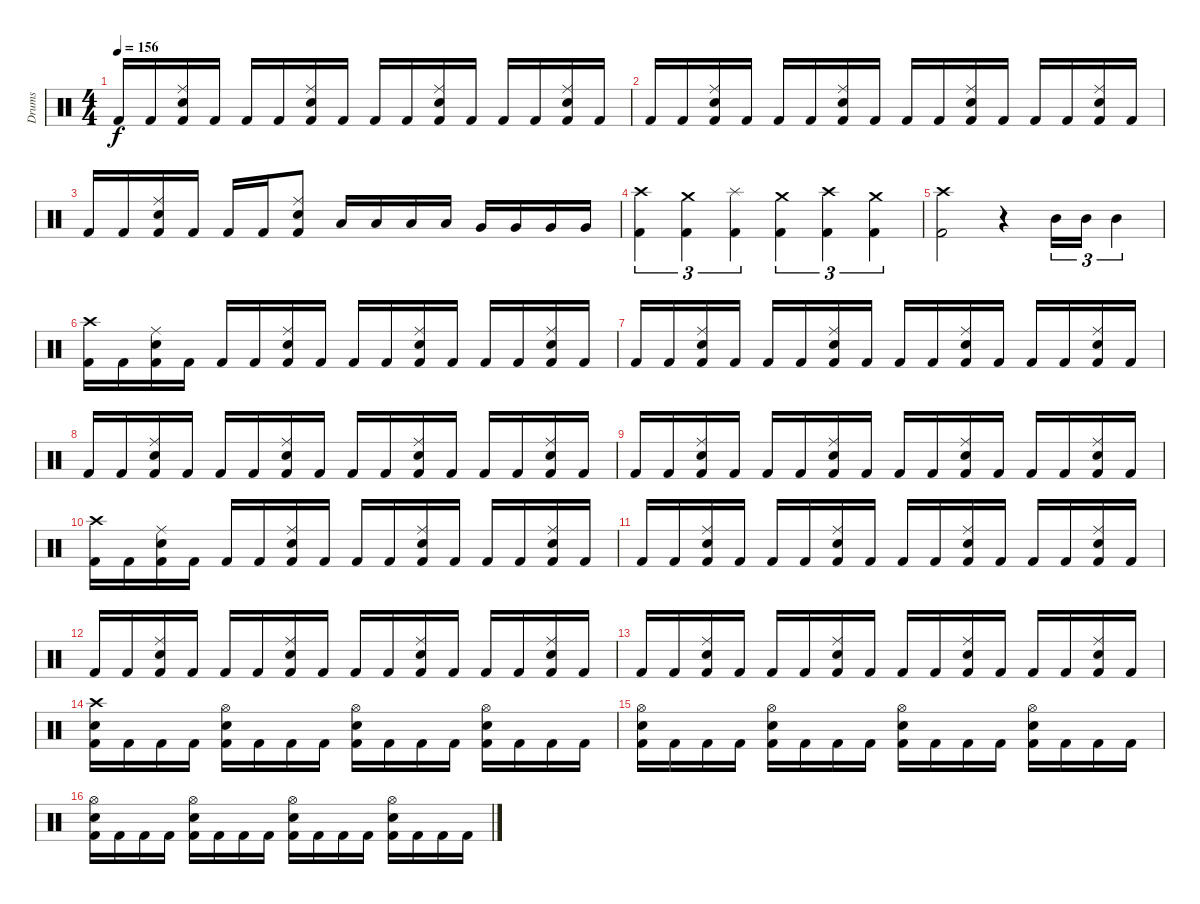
\track ("Drums" "Drums") {instrument percussion}
\staff {score}
\articulation defaults
\ts (4 4)
\tempo 156
\clef neutral
\ks c "Kick (hit) 2".16{dy f} "Kick (hit) 2".16
("Ride (middle)" "Electric Snare (hit)" "Kick (hit) 2").16 "Kick (hit) 2".16 "Kick (hit) 2".16 "Kick (hit) 2".16 ("Ride (middle)" "Electric Snare (hit)" "Kick (hit) 2").16 "Kick (hit) 2".16 "Kick (hit) 2".16 "Kick (hit) 2".16 ("Ride (middle)" "Electric Snare (hit)" "Kick (hit) 2").16 "Kick (hit) 2".16 "Kick (hit) 2".16 "Kick (hit) 2".16 ("Ride (middle)" "Electric Snare (hit)" "Kick (hit) 2").16 "Kick (hit) 2".16 |
"Kick (hit) 2".16 "Kick (hit) 2".16 ("Ride (middle)" "Electric Snare (hit)" "Kick (hit) 2").16 "Kick (hit) 2".16 "Kick (hit) 2".16 "Kick (hit) 2".16 ("Ride (middle)" "Electric Snare (hit)" "Kick (hit) 2").16 "Kick (hit) 2".16 "Kick (hit) 2".16 "Kick (hit) 2".16 ("Ride (middle)" "Electric Snare (hit)" "Kick (hit) 2").16 "Kick (hit) 2".16 "Kick (hit) 2".16 "Kick (hit) 2".16 ("Ride (middle)" "Electric Snare (hit)" "Kick (hit) 2").16 "Kick (hit) 2".16 |
"Kick (hit) 2".16 "Kick (hit) 2".16 ("Ride (middle)" "Electric Snare (hit)" "Kick (hit) 2").16 "Kick (hit) 2".16 "Kick (hit) 2".16 "Kick (hit) 2".16 ("Ride (middle)" "Electric Snare (hit)" "Kick (hit) 2").8 "Low Tom (hit)".16 "Low Tom (hit)".16 "Low Tom (hit)".16 "Low Tom (hit)".16 "Very Low Tom (hit)".16 "Very Low Tom (hit)".16 "Very Low Tom (hit)".16 "Very Low Tom (hit)".16 |
("Crash high (hit)" "Kick (hit) 2").4{tu (3 2)} ("Crash medium (hit)" "Kick (hit) 2").4{tu (3 2)} ("Splash (hit)" "Kick (hit) 2").4{tu (3 2)} ("Crash medium (hit)" "Kick (hit) 2").4{tu (3 2)} ("Crash high (hit)" "Kick (hit) 2").4{tu (3 2)} ("Crash medium (hit)" "Kick (hit) 2").4{tu (3 2)} |
("Crash high (hit)" "Kick (hit) 2").2 r.4 "Mid Tom (hit)".16{tu (3 2)} "Mid Tom (hit)".16{tu (3 2)} "Mid Tom (hit)".4{tu (3 2)} |
("Crash high (hit)" "Kick (hit) 2").16 "Kick (hit) 2".16 ("Ride (middle)" "Electric Snare (hit)" "Kick (hit) 2").16 "Kick (hit) 2".16 "Kick (hit) 2".16 "Kick (hit) 2".16 ("Ride (middle)" "Electric Snare (hit)" "Kick (hit) 2").16 "Kick (hit) 2".16 "Kick (hit) 2".16 "Kick (hit) 2".16 ("Ride (middle)" "Electric Snare (hit)" "Kick (hit) 2").16 "Kick (hit) 2".16 "Kick (hit) 2".16 "Kick (hit) 2".16 ("Ride (middle)" "Electric Snare (hit)" "Kick (hit) 2").16 "Kick (hit) 2".16 |
"Kick (hit) 2".16 "Kick (hit) 2".16 ("Ride (middle)" "Electric Snare (hit)" "Kick (hit) 2").16 "Kick (hit) 2".16 "Kick (hit) 2".16 "Kick (hit) 2".16 ("Ride (middle)" "Electric Snare (hit)" "Kick (hit) 2").16 "Kick (hit) 2".16 "Kick (hit) 2".16 "Kick (hit) 2".16 ("Ride (middle)" "Electric Snare (hit)" "Kick (hit) 2").16 "Kick (hit) 2".16 "Kick (hit) 2".16 "Kick (hit) 2".16 ("Ride (middle)" "Electric Snare (hit)" "Kick (hit) 2").16 "Kick (hit) 2".16 |
"Kick (hit) 2".16 "Kick (hit) 2".16 ("Ride (middle)" "Electric Snare (hit)" "Kick (hit) 2").16 "Kick (hit) 2".16 "Kick (hit) 2".16 "Kick (hit) 2".16 ("Ride (middle)" "Electric Snare (hit)" "Kick (hit) 2").16 "Kick (hit) 2".16 "Kick (hit) 2".16 "Kick (hit) 2".16 ("Ride (middle)" "Electric Snare (hit)" "Kick (hit) 2").16 "Kick (hit) 2".16 "Kick (hit) 2".16 "Kick (hit) 2".16 ("Ride (middle)" "Electric Snare (hit)" "Kick (hit) 2").16 "Kick (hit) 2".16 |
"Kick (hit) 2".16 "Kick (hit) 2".16 ("Ride (middle)" "Electric Snare (hit)" "Kick (hit) 2").16 "Kick (hit) 2".16 "Kick (hit) 2".16 "Kick (hit) 2".16 ("Ride (middle)" "Electric Snare (hit)" "Kick (hit) 2").16 "Kick (hit) 2".16 "Kick (hit) 2".16 "Kick (hit) 2".16 ("Ride (middle)" "Electric Snare (hit)" "Kick (hit) 2").16 "Kick (hit) 2".16 "Kick (hit) 2".16 "Kick (hit) 2".16 ("Ride (middle)" "Electric Snare (hit)" "Kick (hit) 2").16 "Kick (hit) 2".16 |
("Crash high (hit)" "Kick (hit) 2").16 "Kick (hit) 2".16 ("Ride (middle)" "Electric Snare (hit)" "Kick (hit) 2").16 "Kick (hit) 2".16 "Kick (hit) 2".16 "Kick (hit) 2".16 ("Ride (middle)" "Electric Snare (hit)" "Kick (hit) 2").16 "Kick (hit) 2".16 "Kick (hit) 2".16 "Kick (hit) 2".16 ("Ride (middle)" "Electric Snare (hit)" "Kick (hit) 2").16 "Kick (hit) 2".16 "Kick (hit) 2".16 "Kick (hit) 2".16 ("Ride (middle)" "Electric Snare (hit)" "Kick (hit) 2").16 "Kick (hit) 2".16 |
"Kick (hit) 2".16 "Kick (hit) 2".16 ("Ride (middle)" "Electric Snare (hit)" "Kick (hit) 2").16 "Kick (hit) 2".16 "Kick (hit) 2".16 "Kick (hit) 2".16 ("Ride (middle)" "Electric Snare (hit)" "Kick (hit) 2").16 "Kick (hit) 2".16 "Kick (hit) 2".16 "Kick (hit) 2".16 ("Ride (middle)" "Electric Snare (hit)" "Kick (hit) 2").16 "Kick (hit) 2".16 "Kick (hit) 2".16 "Kick (hit) 2".16 ("Ride (middle)" "Electric Snare (hit)" "Kick (hit) 2").16 "Kick (hit) 2".16 |
"Kick (hit) 2".16 "Kick (hit) 2".16 ("Ride (middle)" "Electric Snare (hit)" "Kick (hit) 2").16 "Kick (hit) 2".16 "Kick (hit) 2".16 "Kick (hit) 2".16 ("Ride (middle)" "Electric Snare (hit)" "Kick (hit) 2").16 "Kick (hit) 2".16 "Kick (hit) 2".16 "Kick (hit) 2".16 ("Ride (middle)" "Electric Snare (hit)" "Kick (hit) 2").16 "Kick (hit) 2".16 "Kick (hit) 2".16 "Kick (hit) 2".16 ("Ride (middle)" "Electric Snare (hit)" "Kick (hit) 2").16 "Kick (hit) 2".16 |
"Kick (hit) 2".16 "Kick (hit) 2".16 ("Ride (middle)" "Electric Snare (hit)" "Kick (hit) 2").16 "Kick (hit) 2".16 "Kick (hit) 2".16 "Kick (hit) 2".16 ("Ride (middle)" "Electric Snare (hit)" "Kick (hit) 2").16 "Kick (hit) 2".16 "Kick (hit) 2".16 "Kick (hit) 2".16 ("Ride (middle)" "Electric Snare (hit)" "Kick (hit) 2").16 "Kick (hit) 2".16 "Kick (hit) 2".16 "Kick (hit) 2".16 ("Ride (middle)" "Electric Snare (hit)" "Kick (hit) 2").16 "Kick (hit) 2".16 |
("Crash high (hit)" "Electric Snare (hit)" "Kick (hit) 2").16 "Kick (hit) 2".16 "Kick (hit) 2".16 "Kick (hit) 2".16 ("Hi-Hat (open)" "Electric Snare (hit)" "Kick (hit) 2").16 "Kick (hit) 2".16 "Kick (hit) 2".16 "Kick (hit) 2".16 ("Hi-Hat (open)" "Electric Snare (hit)" "Kick (hit) 2").16 "Kick (hit) 2".16 "Kick (hit) 2".16 "Kick (hit) 2".16 ("Hi-Hat (open)" "Electric Snare (hit)" "Kick (hit) 2").16 "Kick (hit) 2".16 "Kick (hit) 2".16 "Kick (hit) 2".16 |
("Hi-Hat (open)" "Electric Snare (hit)" "Kick (hit) 2").16 "Kick (hit) 2".16 "Kick (hit) 2".16 "Kick (hit) 2".16 ("Hi-Hat (open)" "Electric Snare (hit)" "Kick (hit) 2").16 "Kick (hit) 2".16 "Kick (hit) 2".16 "Kick (hit) 2".16 ("Hi-Hat (open)" "Electric Snare (hit)" "Kick (hit) 2").16 "Kick (hit) 2".16 "Kick (hit) 2".16 "Kick (hit) 2".16 ("Hi-Hat (open)" "Electric Snare (hit)" "Kick (hit) 2").16 "Kick (hit) 2".16 "Kick (hit) 2".16 "Kick (hit) 2".16 |
("Hi-Hat (open)" "Electric Snare (hit)" "Kick (hit) 2").16 "Kick (hit) 2".16 "Kick (hit) 2".16 "Kick (hit) 2".16 ("Hi-Hat (open)" "Electric Snare (hit)" "Kick (hit) 2").16 "Kick (hit) 2".16 "Kick (hit) 2".16 "Kick (hit) 2".16 ("Hi-Hat (open)" "Electric Snare (hit)" "Kick (hit) 2").16 "Kick (hit) 2".16 "Kick (hit) 2".16 "Kick (hit) 2".16 ("Hi-Hat (open)" "Electric Snare (hit)" "Kick (hit) 2").16 "Kick (hit) 2".16 "Kick (hit) 2".16 "Kick (hit) 2".16
